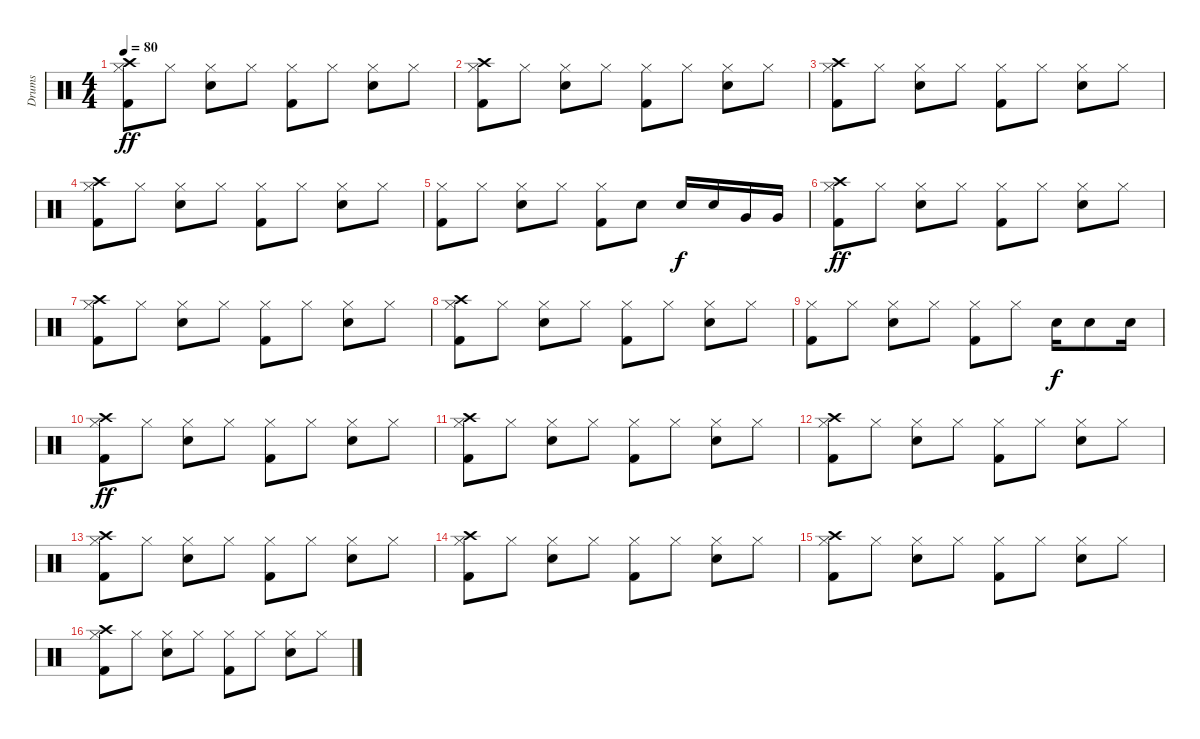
\track ("Drums" "Drums") {instrument percussion}
\staff {score}
\articulation defaults
\ts (4 4)
\tempo 80
\clef neutral
\ks c
("Kick (hit) 2" "Hi-Hat (closed)" "Crash high (hit)").8{dy ff volume 14 balance 8} "Hi-Hat (closed)".8 ("Snare (hit) 2" "Hi-Hat (closed)").8 "Hi-Hat (closed)".8 ("Kick (hit) 2" "Hi-Hat (closed)").8 "Hi-Hat (closed)".8 ("Snare (hit) 2" "Hi-Hat (closed)").8 "Hi-Hat (closed)".8 |
("Kick (hit) 2" "Hi-Hat (closed)" "Crash high (hit)").8{volume 14 balance 8} "Hi-Hat (closed)".8 ("Snare (hit) 2" "Hi-Hat (closed)").8 "Hi-Hat (closed)".8 ("Kick (hit) 2" "Hi-Hat (closed)").8 "Hi-Hat (closed)".8 ("Snare (hit) 2" "Hi-Hat (closed)").8 "Hi-Hat (closed)".8 |
("Kick (hit) 2" "Hi-Hat (closed)" "Crash high (hit)").8{volume 14 balance 8} "Hi-Hat (closed)".8 ("Snare (hit) 2" "Hi-Hat (closed)").8 "Hi-Hat (closed)".8 ("Kick (hit) 2" "Hi-Hat (closed)").8 "Hi-Hat (closed)".8 ("Snare (hit) 2" "Hi-Hat (closed)").8 "Hi-Hat (closed)".8 |
("Kick (hit) 2" "Hi-Hat (closed)" "Crash high (hit)").8{volume 14 balance 8} "Hi-Hat (closed)".8 ("Snare (hit) 2" "Hi-Hat (closed)").8 "Hi-Hat (closed)".8 ("Kick (hit) 2" "Hi-Hat (closed)").8 "Hi-Hat (closed)".8 ("Snare (hit) 2" "Hi-Hat (closed)").8 "Hi-Hat (closed)".8 |
("Kick (hit) 2" "Hi-Hat (closed)").8{volume 12 balance 8} "Hi-Hat (closed)".8 ("Snare (hit) 2" "Hi-Hat (closed)").8 "Hi-Hat (closed)".8 ("Kick (hit) 2" "Hi-Hat (closed)").8 "Snare (hit) 2".8 "Snare (hit) 2".16{dy f} "Snare (hit) 2".16 "Very Low Tom (hit)".16 "Very Low Tom (hit)".16 |
("Kick (hit) 2" "Hi-Hat (closed)" "Crash high (hit)").8{dy ff volume 12 balance 8} "Hi-Hat (closed)".8 ("Snare (hit) 2" "Hi-Hat (closed)").8 "Hi-Hat (closed)".8 ("Kick (hit) 2" "Hi-Hat (closed)").8 "Hi-Hat (closed)".8 ("Snare (hit) 2" "Hi-Hat (closed)").8 "Hi-Hat (closed)".8 |
("Kick (hit) 2" "Hi-Hat (closed)" "Crash high (hit)").8{volume 14 balance 8} "Hi-Hat (closed)".8 ("Snare (hit) 2" "Hi-Hat (closed)").8 "Hi-Hat (closed)".8 ("Kick (hit) 2" "Hi-Hat (closed)").8 "Hi-Hat (closed)".8 ("Snare (hit) 2" "Hi-Hat (closed)").8 "Hi-Hat (closed)".8 |
("Kick (hit) 2" "Hi-Hat (closed)" "Crash high (hit)").8{volume 14 balance 8} "Hi-Hat (closed)".8 ("Snare (hit) 2" "Hi-Hat (closed)").8 "Hi-Hat (closed)".8 ("Kick (hit) 2" "Hi-Hat (closed)").8 "Hi-Hat (closed)".8 ("Snare (hit) 2" "Hi-Hat (closed)").8 "Hi-Hat (closed)".8 |
("Kick (hit) 2" "Hi-Hat (closed)").8{volume 12 balance 8} "Hi-Hat (closed)".8 ("Snare (hit) 2" "Hi-Hat (closed)").8 "Hi-Hat (closed)".8 ("Kick (hit) 2" "Hi-Hat (closed)").8 "Hi-Hat (closed)".8 "Snare (hit) 2".16{dy f} "Snare (hit) 2".8 "Snare (hit) 2".16 |
("Kick (hit) 2" "Hi-Hat (closed)" "Crash high (hit)").8{dy ff volume 14 balance 8} "Hi-Hat (closed)".8 ("Snare (hit) 2" "Hi-Hat (closed)").8 "Hi-Hat (closed)".8 ("Kick (hit) 2" "Hi-Hat (closed)").8 "Hi-Hat (closed)".8 ("Snare (hit) 2" "Hi-Hat (closed)").8 "Hi-Hat (closed)".8 |
("Kick (hit) 2" "Hi-Hat (closed)" "Crash high (hit)").8{volume 14 balance 8} "Hi-Hat (closed)".8 ("Snare (hit) 2" "Hi-Hat (closed)").8 "Hi-Hat (closed)".8 ("Kick (hit) 2" "Hi-Hat (closed)").8 "Hi-Hat (closed)".8 ("Snare (hit) 2" "Hi-Hat (closed)").8 "Hi-Hat (closed)".8 |
("Kick (hit) 2" "Hi-Hat (closed)" "Crash high (hit)").8{volume 14 balance 8} "Hi-Hat (closed)".8 ("Snare (hit) 2" "Hi-Hat (closed)").8 "Hi-Hat (closed)".8 ("Kick (hit) 2" "Hi-Hat (closed)").8 "Hi-Hat (closed)".8 ("Snare (hit) 2" "Hi-Hat (closed)").8 "Hi-Hat (closed)".8 |
("Kick (hit) 2" "Hi-Hat (closed)" "Crash high (hit)").8{volume 14 balance 8} "Hi-Hat (closed)".8 ("Snare (hit) 2" "Hi-Hat (closed)").8 "Hi-Hat (closed)".8 ("Kick (hit) 2" "Hi-Hat (closed)").8 "Hi-Hat (closed)".8 ("Snare (hit) 2" "Hi-Hat (closed)").8 "Hi-Hat (closed)".8 |
("Kick (hit) 2" "Hi-Hat (closed)" "Crash high (hit)").8{volume 14 balance 8} "Hi-Hat (closed)".8 ("Snare (hit) 2" "Hi-Hat (closed)").8 "Hi-Hat (closed)".8 ("Kick (hit) 2" "Hi-Hat (closed)").8 "Hi-Hat (closed)".8 ("Snare (hit) 2" "Hi-Hat (closed)").8 "Hi-Hat (closed)".8 |
("Kick (hit) 2" "Hi-Hat (closed)" "Crash high (hit)").8{volume 14 balance 8} "Hi-Hat (closed)".8 ("Snare (hit) 2" "Hi-Hat (closed)").8 "Hi-Hat (closed)".8 ("Kick (hit) 2" "Hi-Hat (closed)").8 "Hi-Hat (closed)".8 ("Snare (hit) 2" "Hi-Hat (closed)").8 "Hi-Hat (closed)".8 |
("Kick (hit) 2" "Hi-Hat (closed)" "Crash high (hit)").8{volume 14 balance 8} "Hi-Hat (closed)".8 ("Snare (hit) 2" "Hi-Hat (closed)").8 "Hi-Hat (closed)".8 ("Kick (hit) 2" "Hi-Hat (closed)").8 "Hi-Hat (closed)".8 ("Snare (hit) 2" "Hi-Hat (closed)").8 "Hi-Hat (closed)".8
